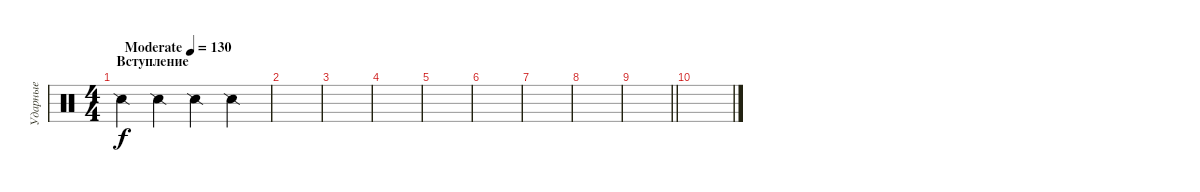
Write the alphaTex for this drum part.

\track ("Ударные" "Ударные") {instrument percussion}
\staff {score}
\articulation defaults
\ts (4 4)
\section ("" "Вступление")
\tempo (130 "Moderate")
\clef neutral
\ks c "Snare (side stick) 2".4{dy f} "Snare (side stick) 2".4 "Snare (side stick) 2".4 "Snare (side stick) 2".4
|
|
|
|
|
|
|
|
\barLineRight lightlight
|
\section ("" " ")
